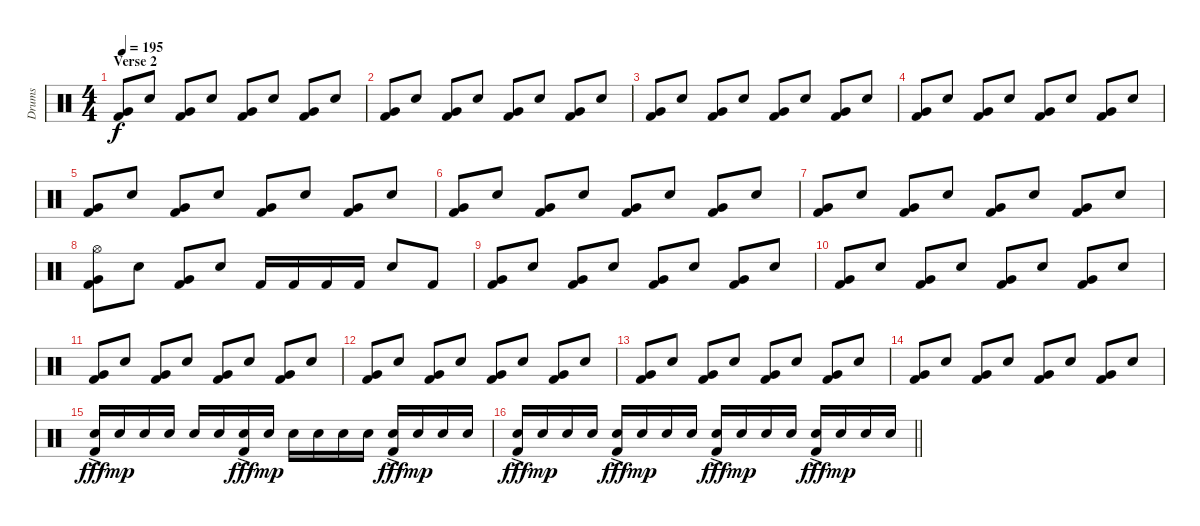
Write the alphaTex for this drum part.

\track ("Drums" "Drums") {instrument percussion}
\staff {score}
\articulation defaults
\ts (4 4)
\section ("" "Verse 2")
\tempo 195
\clef neutral
\ks c
("Very Low Tom (hit)" "Kick (hit) 2").8{dy f} "Snare (hit) 2".8 ("Very Low Tom (hit)" "Kick (hit) 2").8 "Snare (hit) 2".8 ("Very Low Tom (hit)" "Kick (hit) 2").8 "Snare (hit) 2".8 ("Very Low Tom (hit)" "Kick (hit) 2").8 "Snare (hit) 2".8 |
("Very Low Tom (hit)" "Kick (hit) 2").8 "Snare (hit) 2".8 ("Very Low Tom (hit)" "Kick (hit) 2").8 "Snare (hit) 2".8 ("Very Low Tom (hit)" "Kick (hit) 2").8 "Snare (hit) 2".8 ("Very Low Tom (hit)" "Kick (hit) 2").8 "Snare (hit) 2".8 |
("Very Low Tom (hit)" "Kick (hit) 2").8 "Snare (hit) 2".8 ("Very Low Tom (hit)" "Kick (hit) 2").8 "Snare (hit) 2".8 ("Very Low Tom (hit)" "Kick (hit) 2").8 "Snare (hit) 2".8 ("Very Low Tom (hit)" "Kick (hit) 2").8 "Snare (hit) 2".8 |
("Very Low Tom (hit)" "Kick (hit) 2").8 "Snare (hit) 2".8 ("Very Low Tom (hit)" "Kick (hit) 2").8 "Snare (hit) 2".8 ("Very Low Tom (hit)" "Kick (hit) 2").8 "Snare (hit) 2".8 ("Very Low Tom (hit)" "Kick (hit) 2").8 "Snare (hit) 2".8 |
("Very Low Tom (hit)" "Kick (hit) 2").8 "Snare (hit) 2".8 ("Very Low Tom (hit)" "Kick (hit) 2").8 "Snare (hit) 2".8 ("Very Low Tom (hit)" "Kick (hit) 2").8 "Snare (hit) 2".8 ("Very Low Tom (hit)" "Kick (hit) 2").8 "Snare (hit) 2".8 |
("Very Low Tom (hit)" "Kick (hit) 2").8 "Snare (hit) 2".8 ("Very Low Tom (hit)" "Kick (hit) 2").8 "Snare (hit) 2".8 ("Very Low Tom (hit)" "Kick (hit) 2").8 "Snare (hit) 2".8 ("Very Low Tom (hit)" "Kick (hit) 2").8 "Snare (hit) 2".8 |
("Very Low Tom (hit)" "Kick (hit) 2").8 "Snare (hit) 2".8 ("Very Low Tom (hit)" "Kick (hit) 2").8 "Snare (hit) 2".8 ("Very Low Tom (hit)" "Kick (hit) 2").8 "Snare (hit) 2".8 ("Very Low Tom (hit)" "Kick (hit) 2").8 "Snare (hit) 2".8 |
("Hi-Hat (open)" "Very Low Tom (hit)" "Kick (hit) 2").8 "Snare (hit) 2".8 ("Very Low Tom (hit)" "Kick (hit) 2").8 "Snare (hit) 2".8 "Kick (hit) 2".16 "Kick (hit) 2".16 "Kick (hit) 2".16 "Kick (hit) 2".16 "Snare (hit) 2".8 "Kick (hit) 2".8 |
("Very Low Tom (hit)" "Kick (hit) 2").8 "Snare (hit) 2".8 ("Very Low Tom (hit)" "Kick (hit) 2").8 "Snare (hit) 2".8 ("Very Low Tom (hit)" "Kick (hit) 2").8 "Snare (hit) 2".8 ("Very Low Tom (hit)" "Kick (hit) 2").8 "Snare (hit) 2".8 |
("Very Low Tom (hit)" "Kick (hit) 2").8 "Snare (hit) 2".8 ("Very Low Tom (hit)" "Kick (hit) 2").8 "Snare (hit) 2".8 ("Very Low Tom (hit)" "Kick (hit) 2").8 "Snare (hit) 2".8 ("Very Low Tom (hit)" "Kick (hit) 2").8 "Snare (hit) 2".8 |
("Very Low Tom (hit)" "Kick (hit) 2").8 "Snare (hit) 2".8 ("Very Low Tom (hit)" "Kick (hit) 2").8 "Snare (hit) 2".8 ("Very Low Tom (hit)" "Kick (hit) 2").8 "Snare (hit) 2".8 ("Very Low Tom (hit)" "Kick (hit) 2").8 "Snare (hit) 2".8 |
("Very Low Tom (hit)" "Kick (hit) 2").8 "Snare (hit) 2".8 ("Very Low Tom (hit)" "Kick (hit) 2").8 "Snare (hit) 2".8 ("Very Low Tom (hit)" "Kick (hit) 2").8 "Snare (hit) 2".8 ("Very Low Tom (hit)" "Kick (hit) 2").8 "Snare (hit) 2".8 |
("Very Low Tom (hit)" "Kick (hit) 2").8 "Snare (hit) 2".8 ("Very Low Tom (hit)" "Kick (hit) 2").8 "Snare (hit) 2".8 ("Very Low Tom (hit)" "Kick (hit) 2").8 "Snare (hit) 2".8 ("Very Low Tom (hit)" "Kick (hit) 2").8 "Snare (hit) 2".8 |
("Very Low Tom (hit)" "Kick (hit) 2").8 "Snare (hit) 2".8 ("Very Low Tom (hit)" "Kick (hit) 2").8 "Snare (hit) 2".8 ("Very Low Tom (hit)" "Kick (hit) 2").8 "Snare (hit) 2".8 ("Very Low Tom (hit)" "Kick (hit) 2").8 "Snare (hit) 2".8 |
("Snare (hit) 2"{ac} "Kick (hit) 2").16{dy fff} "Snare (hit) 2".16{dy mp} "Snare (hit) 2".16 "Snare (hit) 2".16 "Snare (hit) 2".16 "Snare (hit) 2".16 ("Snare (hit) 2"{ac} "Kick (hit) 2").16{dy fff} "Snare (hit) 2".16{dy mp} "Snare (hit) 2".16 "Snare (hit) 2".16 "Snare (hit) 2".16 "Snare (hit) 2".16 ("Snare (hit) 2"{ac} "Kick (hit) 2").16{dy fff} "Snare (hit) 2".16{dy mp} "Snare (hit) 2".16 "Snare (hit) 2".16 |
\barLineRight lightlight
("Snare (hit) 2"{ac} "Kick (hit) 2").16{dy fff} "Snare (hit) 2".16{dy mp} "Snare (hit) 2".16 "Snare (hit) 2".16 ("Snare (hit) 2"{ac} "Kick (hit) 2").16{dy fff} "Snare (hit) 2".16{dy mp} "Snare (hit) 2".16 "Snare (hit) 2".16 ("Snare (hit) 2"{ac} "Kick (hit) 2").16{dy fff} "Snare (hit) 2".16{dy mp} "Snare (hit) 2".16 "Snare (hit) 2".16 ("Snare (hit) 2"{ac} "Kick (hit) 2").16{dy fff} "Snare (hit) 2".16{dy mp} "Snare (hit) 2".16 "Snare (hit) 2".16
